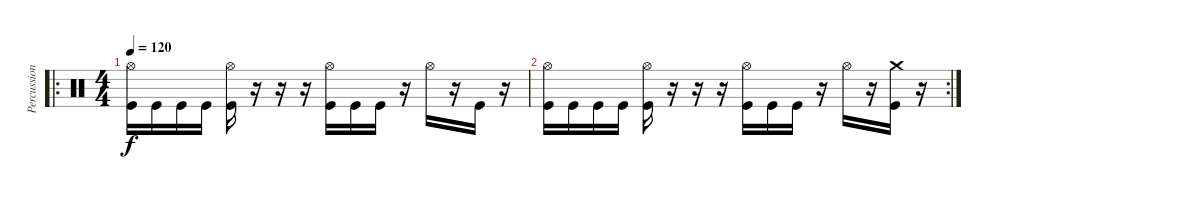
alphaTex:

\track ("Percussion" "Percussion") {instrument percussion}
\staff {score}
\articulation defaults
\ro
\ts (4 4)
\tempo 120
\clef neutral
\ks c
("Hi-Hat (open)" "Kick (hit)").16{dy f} "Kick (hit)".16 "Kick (hit)".16 "Kick (hit)".16 ("Hi-Hat (open)" "Kick (hit)").16 r.16 r.16 r.16 ("Hi-Hat (open)" "Kick (hit)").16 "Kick (hit)".16 "Kick (hit)".16 r.16 "Hi-Hat (open)".16 r.16 "Kick (hit)".16 r.16 |
\rc 2
("Hi-Hat (open)" "Kick (hit)").16 "Kick (hit)".16 "Kick (hit)".16 "Kick (hit)".16 ("Hi-Hat (open)" "Kick (hit)").16 r.16 r.16 r.16 ("Hi-Hat (open)" "Kick (hit)").16 "Kick (hit)".16 "Kick (hit)".16 r.16 "Hi-Hat (open)".16 r.16 ("Crash medium (hit)" "Kick (hit)").16 r.16
